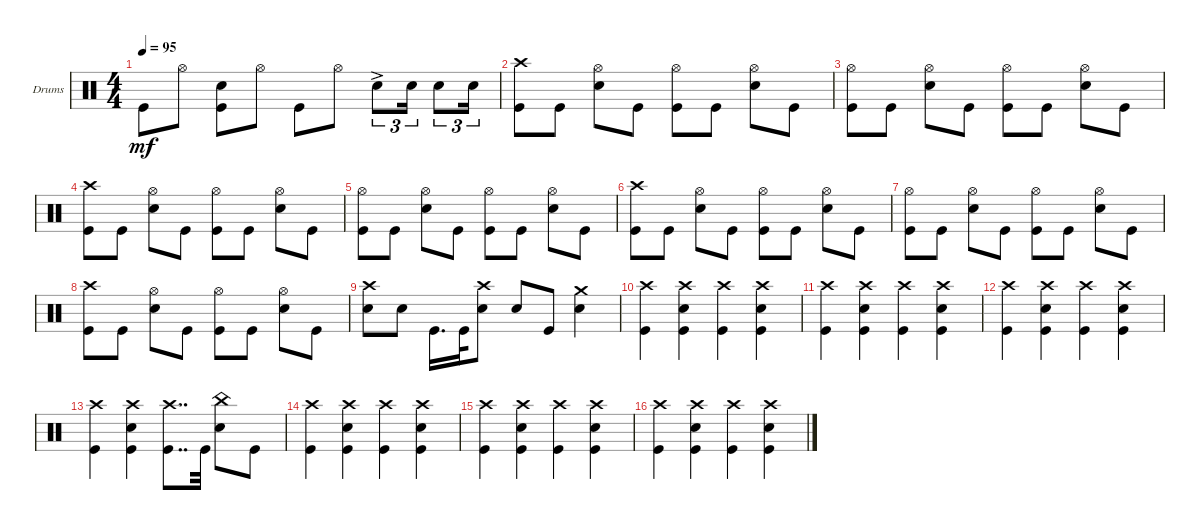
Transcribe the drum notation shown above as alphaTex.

\defaultSystemsLayout 4
\bracketExtendMode groupsimilarinstruments
\firstSystemTrackNameOrientation horizontal
\otherSystemsTrackNameOrientation horizontal
\track ("Drumkit" "Drums") {instrument percussion}
\staff {score}
\articulation defaults
\ts (4 4)
\tempo 95
\clef neutral
\ks c "Kick (hit)".8{dy mf} "Hi-Hat (open)".8
("Snare (hit) 2" "Kick (hit)").8 "Hi-Hat (open)".8 "Kick (hit)".8 "Hi-Hat (open)".8 "Snare (hit) 2"{ac}.8{tu (3 2)} "Snare (hit) 2".16{tu (3 2)} "Snare (hit) 2".8{tu (3 2)} "Snare (hit) 2".16{tu (3 2)} |
("Crash high (hit)" "Kick (hit)").8 "Kick (hit)".8 ("Hi-Hat (open)" "Snare (hit) 2").8 "Kick (hit)".8 ("Kick (hit)" "Hi-Hat (open)").8 "Kick (hit)".8 ("Hi-Hat (open)" "Snare (hit) 2").8 "Kick (hit)".8 |
("Kick (hit)" "Hi-Hat (open)").8 "Kick (hit)".8 ("Hi-Hat (open)" "Snare (hit) 2").8 "Kick (hit)".8 ("Kick (hit)" "Hi-Hat (open)").8 "Kick (hit)".8 ("Hi-Hat (open)" "Snare (hit) 2").8 "Kick (hit)".8 |
("Crash high (hit)" "Kick (hit)").8 "Kick (hit)".8 ("Hi-Hat (open)" "Snare (hit) 2").8 "Kick (hit)".8 ("Kick (hit)" "Hi-Hat (open)").8 "Kick (hit)".8 ("Hi-Hat (open)" "Snare (hit) 2").8 "Kick (hit)".8 |
("Kick (hit)" "Hi-Hat (open)").8 "Kick (hit)".8 ("Hi-Hat (open)" "Snare (hit) 2").8 "Kick (hit)".8 ("Kick (hit)" "Hi-Hat (open)").8 "Kick (hit)".8 ("Hi-Hat (open)" "Snare (hit) 2").8 "Kick (hit)".8 |
("Crash high (hit)" "Kick (hit)").8 "Kick (hit)".8 ("Hi-Hat (open)" "Snare (hit) 2").8 "Kick (hit)".8 ("Kick (hit)" "Hi-Hat (open)").8 "Kick (hit)".8 ("Hi-Hat (open)" "Snare (hit) 2").8 "Kick (hit)".8 |
("Kick (hit)" "Hi-Hat (open)").8 "Kick (hit)".8 ("Hi-Hat (open)" "Snare (hit) 2").8 "Kick (hit)".8 ("Kick (hit)" "Hi-Hat (open)").8 "Kick (hit)".8 ("Hi-Hat (open)" "Snare (hit) 2").8 "Kick (hit)".8 |
("Crash high (hit)" "Kick (hit)").8 "Kick (hit)".8 ("Hi-Hat (open)" "Snare (hit) 2").8 "Kick (hit)".8 ("Kick (hit)" "Hi-Hat (open)").8 "Kick (hit)".8 ("Hi-Hat (open)" "Snare (hit) 2").8 "Kick (hit)".8 |
("Snare (hit) 2" "Crash high (hit)").8 "Snare (hit) 2".8 "Kick (hit)".16{d} "Kick (hit)".32 ("Crash high (hit)" "Snare (hit) 2").8 "Snare (hit) 2".8 "Kick (hit)".8 ("Snare (hit) 2" "Crash medium (hit)").4 |
("Crash high (hit)" "Kick (hit)").4 ("Crash high (hit)" "Snare (hit) 2" "Kick (hit)").4 ("Crash high (hit)" "Kick (hit)").4 ("Crash high (hit)" "Snare (hit) 2" "Kick (hit)").4 |
("Crash high (hit)" "Kick (hit)").4 ("Crash high (hit)" "Snare (hit) 2" "Kick (hit)").4 ("Crash high (hit)" "Kick (hit)").4 ("Crash high (hit)" "Snare (hit) 2" "Kick (hit)").4 |
("Crash high (hit)" "Kick (hit)").4 ("Crash high (hit)" "Snare (hit) 2" "Kick (hit)").4 ("Crash high (hit)" "Kick (hit)").4 ("Crash high (hit)" "Snare (hit) 2" "Kick (hit)").4 |
("Crash high (hit)" "Kick (hit)").4 ("Crash high (hit)" "Snare (hit) 2" "Kick (hit)").4 ("Crash high (hit)" "Kick (hit)").8{dd} "Kick (hit)".32 ("Snare (hit) 2" "China (hit)").8 "Kick (hit)".8 |
("Crash high (hit)" "Kick (hit)").4 ("Crash high (hit)" "Snare (hit) 2" "Kick (hit)").4 ("Crash high (hit)" "Kick (hit)").4 ("Crash high (hit)" "Snare (hit) 2" "Kick (hit)").4 |
("Crash high (hit)" "Kick (hit)").4 ("Crash high (hit)" "Snare (hit) 2" "Kick (hit)").4 ("Crash high (hit)" "Kick (hit)").4 ("Crash high (hit)" "Snare (hit) 2" "Kick (hit)").4 |
("Crash high (hit)" "Kick (hit)").4 ("Crash high (hit)" "Snare (hit) 2" "Kick (hit)").4 ("Crash high (hit)" "Kick (hit)").4 ("Crash high (hit)" "Snare (hit) 2" "Kick (hit)").4
